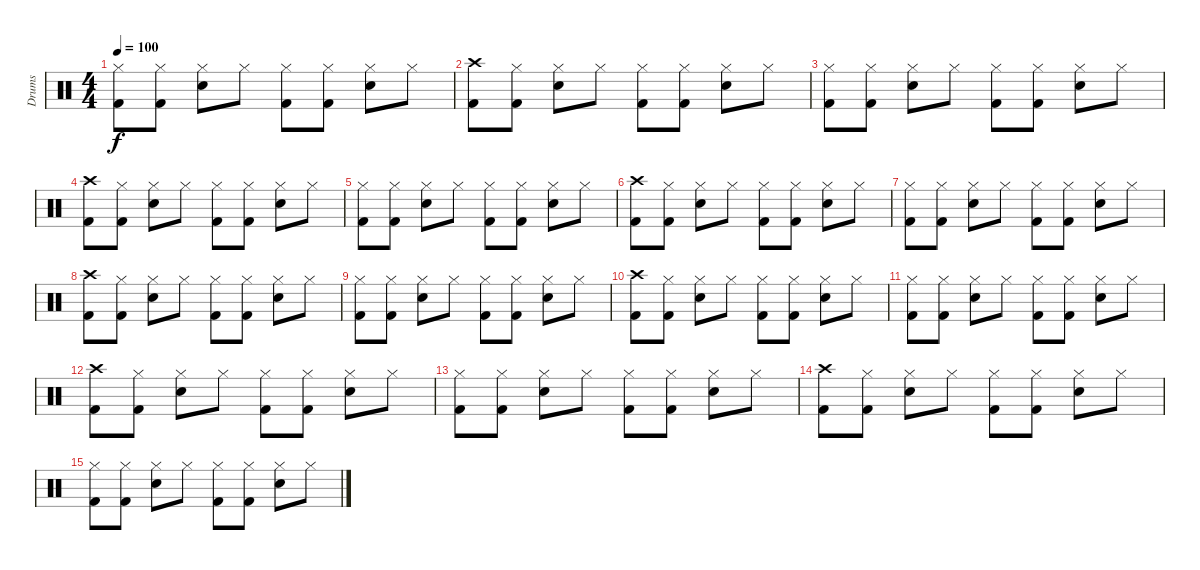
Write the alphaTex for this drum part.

\track ("Drums" "Drums") {instrument percussion}
\staff {score}
\articulation defaults
\ts (4 4)
\tempo 100
\clef neutral
\ks c
("Hi-Hat (closed)" "Kick (hit) 2").8{dy f} ("Hi-Hat (closed)" "Kick (hit) 2").8 ("Hi-Hat (closed)" "Electric Snare (hit)").8 "Hi-Hat (closed)".8 ("Hi-Hat (closed)" "Kick (hit) 2").8 ("Hi-Hat (closed)" "Kick (hit) 2").8 ("Hi-Hat (closed)" "Electric Snare (hit)").8 "Hi-Hat (closed)".8 |
("Crash high (hit)" "Kick (hit) 2").8 ("Hi-Hat (closed)" "Kick (hit) 2").8 ("Hi-Hat (closed)" "Electric Snare (hit)").8 "Hi-Hat (closed)".8 ("Hi-Hat (closed)" "Kick (hit) 2").8 ("Hi-Hat (closed)" "Kick (hit) 2").8 ("Hi-Hat (closed)" "Electric Snare (hit)").8 "Hi-Hat (closed)".8 |
("Hi-Hat (closed)" "Kick (hit) 2").8 ("Hi-Hat (closed)" "Kick (hit) 2").8 ("Hi-Hat (closed)" "Electric Snare (hit)").8 "Hi-Hat (closed)".8 ("Hi-Hat (closed)" "Kick (hit) 2").8 ("Hi-Hat (closed)" "Kick (hit) 2").8 ("Hi-Hat (closed)" "Electric Snare (hit)").8 "Hi-Hat (closed)".8 |
("Crash high (hit)" "Kick (hit) 2").8 ("Hi-Hat (closed)" "Kick (hit) 2").8 ("Hi-Hat (closed)" "Electric Snare (hit)").8 "Hi-Hat (closed)".8 ("Hi-Hat (closed)" "Kick (hit) 2").8 ("Hi-Hat (closed)" "Kick (hit) 2").8 ("Hi-Hat (closed)" "Electric Snare (hit)").8 "Hi-Hat (closed)".8 |
("Hi-Hat (closed)" "Kick (hit) 2").8 ("Hi-Hat (closed)" "Kick (hit) 2").8 ("Hi-Hat (closed)" "Electric Snare (hit)").8 "Hi-Hat (closed)".8 ("Hi-Hat (closed)" "Kick (hit) 2").8 ("Hi-Hat (closed)" "Kick (hit) 2").8 ("Hi-Hat (closed)" "Electric Snare (hit)").8 "Hi-Hat (closed)".8 |
("Crash high (hit)" "Kick (hit) 2").8 ("Hi-Hat (closed)" "Kick (hit) 2").8 ("Hi-Hat (closed)" "Electric Snare (hit)").8 "Hi-Hat (closed)".8 ("Hi-Hat (closed)" "Kick (hit) 2").8 ("Hi-Hat (closed)" "Kick (hit) 2").8 ("Hi-Hat (closed)" "Electric Snare (hit)").8 "Hi-Hat (closed)".8 |
("Hi-Hat (closed)" "Kick (hit) 2").8 ("Hi-Hat (closed)" "Kick (hit) 2").8 ("Hi-Hat (closed)" "Electric Snare (hit)").8 "Hi-Hat (closed)".8 ("Hi-Hat (closed)" "Kick (hit) 2").8 ("Hi-Hat (closed)" "Kick (hit) 2").8 ("Hi-Hat (closed)" "Electric Snare (hit)").8 "Hi-Hat (closed)".8 |
("Crash high (hit)" "Kick (hit) 2").8 ("Hi-Hat (closed)" "Kick (hit) 2").8 ("Hi-Hat (closed)" "Electric Snare (hit)").8 "Hi-Hat (closed)".8 ("Hi-Hat (closed)" "Kick (hit) 2").8 ("Hi-Hat (closed)" "Kick (hit) 2").8 ("Hi-Hat (closed)" "Electric Snare (hit)").8 "Hi-Hat (closed)".8 |
("Hi-Hat (closed)" "Kick (hit) 2").8 ("Hi-Hat (closed)" "Kick (hit) 2").8 ("Hi-Hat (closed)" "Electric Snare (hit)").8 "Hi-Hat (closed)".8 ("Hi-Hat (closed)" "Kick (hit) 2").8 ("Hi-Hat (closed)" "Kick (hit) 2").8 ("Hi-Hat (closed)" "Electric Snare (hit)").8 "Hi-Hat (closed)".8 |
("Crash high (hit)" "Kick (hit) 2").8 ("Hi-Hat (closed)" "Kick (hit) 2").8 ("Hi-Hat (closed)" "Electric Snare (hit)").8 "Hi-Hat (closed)".8 ("Hi-Hat (closed)" "Kick (hit) 2").8 ("Hi-Hat (closed)" "Kick (hit) 2").8 ("Hi-Hat (closed)" "Electric Snare (hit)").8 "Hi-Hat (closed)".8 |
("Hi-Hat (closed)" "Kick (hit) 2").8 ("Hi-Hat (closed)" "Kick (hit) 2").8 ("Hi-Hat (closed)" "Electric Snare (hit)").8 "Hi-Hat (closed)".8 ("Hi-Hat (closed)" "Kick (hit) 2").8 ("Hi-Hat (closed)" "Kick (hit) 2").8 ("Hi-Hat (closed)" "Electric Snare (hit)").8 "Hi-Hat (closed)".8 |
("Crash high (hit)" "Kick (hit) 2").8 ("Hi-Hat (closed)" "Kick (hit) 2").8 ("Hi-Hat (closed)" "Electric Snare (hit)").8 "Hi-Hat (closed)".8 ("Hi-Hat (closed)" "Kick (hit) 2").8 ("Hi-Hat (closed)" "Kick (hit) 2").8 ("Hi-Hat (closed)" "Electric Snare (hit)").8 "Hi-Hat (closed)".8 |
("Hi-Hat (closed)" "Kick (hit) 2").8 ("Hi-Hat (closed)" "Kick (hit) 2").8 ("Hi-Hat (closed)" "Electric Snare (hit)").8 "Hi-Hat (closed)".8 ("Hi-Hat (closed)" "Kick (hit) 2").8 ("Hi-Hat (closed)" "Kick (hit) 2").8 ("Hi-Hat (closed)" "Electric Snare (hit)").8 "Hi-Hat (closed)".8 |
("Crash high (hit)" "Kick (hit) 2").8 ("Hi-Hat (closed)" "Kick (hit) 2").8 ("Hi-Hat (closed)" "Electric Snare (hit)").8 "Hi-Hat (closed)".8 ("Hi-Hat (closed)" "Kick (hit) 2").8 ("Hi-Hat (closed)" "Kick (hit) 2").8 ("Hi-Hat (closed)" "Electric Snare (hit)").8 "Hi-Hat (closed)".8 |
("Hi-Hat (closed)" "Kick (hit) 2").8 ("Hi-Hat (closed)" "Kick (hit) 2").8 ("Hi-Hat (closed)" "Electric Snare (hit)").8 "Hi-Hat (closed)".8 ("Hi-Hat (closed)" "Kick (hit) 2").8 ("Hi-Hat (closed)" "Kick (hit) 2").8 ("Hi-Hat (closed)" "Electric Snare (hit)").8 "Hi-Hat (closed)".8
